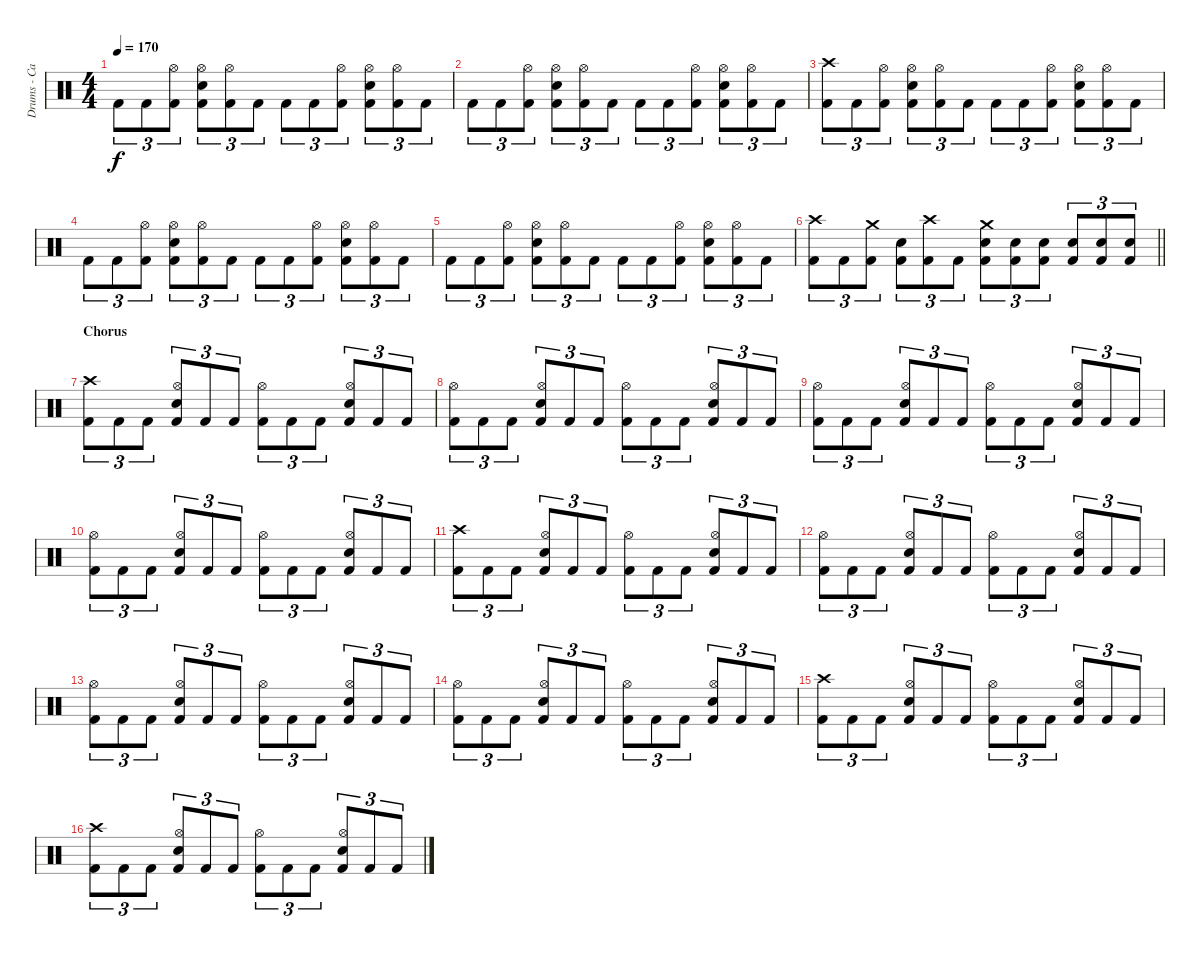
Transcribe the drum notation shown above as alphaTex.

\track ("Drums - Casey Grillo" "Drums - Ca") {instrument percussion}
\staff {score}
\articulation defaults
\ts (4 4)
\tempo 170
\clef neutral
\ks c "Kick (hit) 2".8{tu (3 2) dy f} "Kick (hit) 2".8{tu (3 2)}
("Hi-Hat (open)" "Kick (hit) 2").8{tu (3 2)} ("Hi-Hat (open)" "Snare (hit) 2" "Kick (hit) 2").8{tu (3 2)} ("Hi-Hat (open)" "Kick (hit) 2").8{tu (3 2)} "Kick (hit) 2".8{tu (3 2)} "Kick (hit) 2".8{tu (3 2)} "Kick (hit) 2".8{tu (3 2)} ("Hi-Hat (open)" "Kick (hit) 2").8{tu (3 2)} ("Hi-Hat (open)" "Snare (hit) 2" "Kick (hit) 2").8{tu (3 2)} ("Hi-Hat (open)" "Kick (hit) 2").8{tu (3 2)} "Kick (hit) 2".8{tu (3 2)} |
"Kick (hit) 2".8{tu (3 2)} "Kick (hit) 2".8{tu (3 2)} ("Hi-Hat (open)" "Kick (hit) 2").8{tu (3 2)} ("Hi-Hat (open)" "Snare (hit) 2" "Kick (hit) 2").8{tu (3 2)} ("Hi-Hat (open)" "Kick (hit) 2").8{tu (3 2)} "Kick (hit) 2".8{tu (3 2)} "Kick (hit) 2".8{tu (3 2)} "Kick (hit) 2".8{tu (3 2)} ("Hi-Hat (open)" "Kick (hit) 2").8{tu (3 2)} ("Hi-Hat (open)" "Snare (hit) 2" "Kick (hit) 2").8{tu (3 2)} ("Hi-Hat (open)" "Kick (hit) 2").8{tu (3 2)} "Kick (hit) 2".8{tu (3 2)} |
("Crash high (hit)" "Kick (hit) 2").8{tu (3 2)} "Kick (hit) 2".8{tu (3 2)} ("Hi-Hat (open)" "Kick (hit) 2").8{tu (3 2)} ("Hi-Hat (open)" "Snare (hit) 2" "Kick (hit) 2").8{tu (3 2)} ("Hi-Hat (open)" "Kick (hit) 2").8{tu (3 2)} "Kick (hit) 2".8{tu (3 2)} "Kick (hit) 2".8{tu (3 2)} "Kick (hit) 2".8{tu (3 2)} ("Hi-Hat (open)" "Kick (hit) 2").8{tu (3 2)} ("Hi-Hat (open)" "Snare (hit) 2" "Kick (hit) 2").8{tu (3 2)} ("Hi-Hat (open)" "Kick (hit) 2").8{tu (3 2)} "Kick (hit) 2".8{tu (3 2)} |
"Kick (hit) 2".8{tu (3 2)} "Kick (hit) 2".8{tu (3 2)} ("Hi-Hat (open)" "Kick (hit) 2").8{tu (3 2)} ("Hi-Hat (open)" "Snare (hit) 2" "Kick (hit) 2").8{tu (3 2)} ("Hi-Hat (open)" "Kick (hit) 2").8{tu (3 2)} "Kick (hit) 2".8{tu (3 2)} "Kick (hit) 2".8{tu (3 2)} "Kick (hit) 2".8{tu (3 2)} ("Hi-Hat (open)" "Kick (hit) 2").8{tu (3 2)} ("Hi-Hat (open)" "Snare (hit) 2" "Kick (hit) 2").8{tu (3 2)} ("Hi-Hat (open)" "Kick (hit) 2").8{tu (3 2)} "Kick (hit) 2".8{tu (3 2)} |
"Kick (hit) 2".8{tu (3 2)} "Kick (hit) 2".8{tu (3 2)} ("Hi-Hat (open)" "Kick (hit) 2").8{tu (3 2)} ("Hi-Hat (open)" "Snare (hit) 2" "Kick (hit) 2").8{tu (3 2)} ("Hi-Hat (open)" "Kick (hit) 2").8{tu (3 2)} "Kick (hit) 2".8{tu (3 2)} "Kick (hit) 2".8{tu (3 2)} "Kick (hit) 2".8{tu (3 2)} ("Hi-Hat (open)" "Kick (hit) 2").8{tu (3 2)} ("Hi-Hat (open)" "Snare (hit) 2" "Kick (hit) 2").8{tu (3 2)} ("Hi-Hat (open)" "Kick (hit) 2").8{tu (3 2)} "Kick (hit) 2".8{tu (3 2)} |
\barLineRight lightlight
("Crash high (hit)" "Kick (hit) 2").8{tu (3 2)} "Kick (hit) 2".8{tu (3 2)} ("Crash medium (hit)" "Kick (hit) 2").8{tu (3 2)} ("Snare (hit) 2" "Kick (hit) 2").8{tu (3 2)} ("Crash high (hit)" "Kick (hit) 2").8{tu (3 2)} "Kick (hit) 2".8{tu (3 2)} ("Crash medium (hit)" "Snare (hit) 2" "Kick (hit) 2").8{tu (3 2)} ("Snare (hit) 2" "Kick (hit) 2").8{tu (3 2)} ("Snare (hit) 2" "Kick (hit) 2").8{tu (3 2)} ("Snare (hit) 2" "Kick (hit) 2").8{tu (3 2)} ("Snare (hit) 2" "Kick (hit) 2").8{tu (3 2)} ("Snare (hit) 2" "Kick (hit) 2").8{tu (3 2)} |
\section ("" "Chorus")
("Crash high (hit)" "Kick (hit) 2").8{tu (3 2)} "Kick (hit) 2".8{tu (3 2)} "Kick (hit) 2".8{tu (3 2)} ("Hi-Hat (open)" "Snare (hit) 2" "Kick (hit) 2").8{tu (3 2)} "Kick (hit) 2".8{tu (3 2)} "Kick (hit) 2".8{tu (3 2)} ("Hi-Hat (open)" "Kick (hit) 2").8{tu (3 2)} "Kick (hit) 2".8{tu (3 2)} "Kick (hit) 2".8{tu (3 2)} ("Hi-Hat (open)" "Snare (hit) 2" "Kick (hit) 2").8{tu (3 2)} "Kick (hit) 2".8{tu (3 2)} "Kick (hit) 2".8{tu (3 2)} |
("Hi-Hat (open)" "Kick (hit) 2").8{tu (3 2)} "Kick (hit) 2".8{tu (3 2)} "Kick (hit) 2".8{tu (3 2)} ("Hi-Hat (open)" "Snare (hit) 2" "Kick (hit) 2").8{tu (3 2)} "Kick (hit) 2".8{tu (3 2)} "Kick (hit) 2".8{tu (3 2)} ("Hi-Hat (open)" "Kick (hit) 2").8{tu (3 2)} "Kick (hit) 2".8{tu (3 2)} "Kick (hit) 2".8{tu (3 2)} ("Hi-Hat (open)" "Snare (hit) 2" "Kick (hit) 2").8{tu (3 2)} "Kick (hit) 2".8{tu (3 2)} "Kick (hit) 2".8{tu (3 2)} |
("Hi-Hat (open)" "Kick (hit) 2").8{tu (3 2)} "Kick (hit) 2".8{tu (3 2)} "Kick (hit) 2".8{tu (3 2)} ("Hi-Hat (open)" "Snare (hit) 2" "Kick (hit) 2").8{tu (3 2)} "Kick (hit) 2".8{tu (3 2)} "Kick (hit) 2".8{tu (3 2)} ("Hi-Hat (open)" "Kick (hit) 2").8{tu (3 2)} "Kick (hit) 2".8{tu (3 2)} "Kick (hit) 2".8{tu (3 2)} ("Hi-Hat (open)" "Snare (hit) 2" "Kick (hit) 2").8{tu (3 2)} "Kick (hit) 2".8{tu (3 2)} "Kick (hit) 2".8{tu (3 2)} |
("Hi-Hat (open)" "Kick (hit) 2").8{tu (3 2)} "Kick (hit) 2".8{tu (3 2)} "Kick (hit) 2".8{tu (3 2)} ("Hi-Hat (open)" "Snare (hit) 2" "Kick (hit) 2").8{tu (3 2)} "Kick (hit) 2".8{tu (3 2)} "Kick (hit) 2".8{tu (3 2)} ("Hi-Hat (open)" "Kick (hit) 2").8{tu (3 2)} "Kick (hit) 2".8{tu (3 2)} "Kick (hit) 2".8{tu (3 2)} ("Hi-Hat (open)" "Snare (hit) 2" "Kick (hit) 2").8{tu (3 2)} "Kick (hit) 2".8{tu (3 2)} "Kick (hit) 2".8{tu (3 2)} |
("Crash high (hit)" "Kick (hit) 2").8{tu (3 2)} "Kick (hit) 2".8{tu (3 2)} "Kick (hit) 2".8{tu (3 2)} ("Hi-Hat (open)" "Snare (hit) 2" "Kick (hit) 2").8{tu (3 2)} "Kick (hit) 2".8{tu (3 2)} "Kick (hit) 2".8{tu (3 2)} ("Hi-Hat (open)" "Kick (hit) 2").8{tu (3 2)} "Kick (hit) 2".8{tu (3 2)} "Kick (hit) 2".8{tu (3 2)} ("Hi-Hat (open)" "Snare (hit) 2" "Kick (hit) 2").8{tu (3 2)} "Kick (hit) 2".8{tu (3 2)} "Kick (hit) 2".8{tu (3 2)} |
("Hi-Hat (open)" "Kick (hit) 2").8{tu (3 2)} "Kick (hit) 2".8{tu (3 2)} "Kick (hit) 2".8{tu (3 2)} ("Hi-Hat (open)" "Snare (hit) 2" "Kick (hit) 2").8{tu (3 2)} "Kick (hit) 2".8{tu (3 2)} "Kick (hit) 2".8{tu (3 2)} ("Hi-Hat (open)" "Kick (hit) 2").8{tu (3 2)} "Kick (hit) 2".8{tu (3 2)} "Kick (hit) 2".8{tu (3 2)} ("Hi-Hat (open)" "Snare (hit) 2" "Kick (hit) 2").8{tu (3 2)} "Kick (hit) 2".8{tu (3 2)} "Kick (hit) 2".8{tu (3 2)} |
("Hi-Hat (open)" "Kick (hit) 2").8{tu (3 2)} "Kick (hit) 2".8{tu (3 2)} "Kick (hit) 2".8{tu (3 2)} ("Hi-Hat (open)" "Snare (hit) 2" "Kick (hit) 2").8{tu (3 2)} "Kick (hit) 2".8{tu (3 2)} "Kick (hit) 2".8{tu (3 2)} ("Hi-Hat (open)" "Kick (hit) 2").8{tu (3 2)} "Kick (hit) 2".8{tu (3 2)} "Kick (hit) 2".8{tu (3 2)} ("Hi-Hat (open)" "Snare (hit) 2" "Kick (hit) 2").8{tu (3 2)} "Kick (hit) 2".8{tu (3 2)} "Kick (hit) 2".8{tu (3 2)} |
("Hi-Hat (open)" "Kick (hit) 2").8{tu (3 2)} "Kick (hit) 2".8{tu (3 2)} "Kick (hit) 2".8{tu (3 2)} ("Hi-Hat (open)" "Snare (hit) 2" "Kick (hit) 2").8{tu (3 2)} "Kick (hit) 2".8{tu (3 2)} "Kick (hit) 2".8{tu (3 2)} ("Hi-Hat (open)" "Kick (hit) 2").8{tu (3 2)} "Kick (hit) 2".8{tu (3 2)} "Kick (hit) 2".8{tu (3 2)} ("Hi-Hat (open)" "Snare (hit) 2" "Kick (hit) 2").8{tu (3 2)} "Kick (hit) 2".8{tu (3 2)} "Kick (hit) 2".8{tu (3 2)} |
("Crash high (hit)" "Kick (hit) 2").8{tu (3 2)} "Kick (hit) 2".8{tu (3 2)} "Kick (hit) 2".8{tu (3 2)} ("Hi-Hat (open)" "Snare (hit) 2" "Kick (hit) 2").8{tu (3 2)} "Kick (hit) 2".8{tu (3 2)} "Kick (hit) 2".8{tu (3 2)} ("Hi-Hat (open)" "Kick (hit) 2").8{tu (3 2)} "Kick (hit) 2".8{tu (3 2)} "Kick (hit) 2".8{tu (3 2)} ("Hi-Hat (open)" "Snare (hit) 2" "Kick (hit) 2").8{tu (3 2)} "Kick (hit) 2".8{tu (3 2)} "Kick (hit) 2".8{tu (3 2)} |
("Crash high (hit)" "Kick (hit) 2").8{tu (3 2)} "Kick (hit) 2".8{tu (3 2)} "Kick (hit) 2".8{tu (3 2)} ("Hi-Hat (open)" "Snare (hit) 2" "Kick (hit) 2").8{tu (3 2)} "Kick (hit) 2".8{tu (3 2)} "Kick (hit) 2".8{tu (3 2)} ("Hi-Hat (open)" "Kick (hit) 2").8{tu (3 2)} "Kick (hit) 2".8{tu (3 2)} "Kick (hit) 2".8{tu (3 2)} ("Hi-Hat (open)" "Snare (hit) 2" "Kick (hit) 2").8{tu (3 2)} "Kick (hit) 2".8{tu (3 2)} "Kick (hit) 2".8{tu (3 2)}
